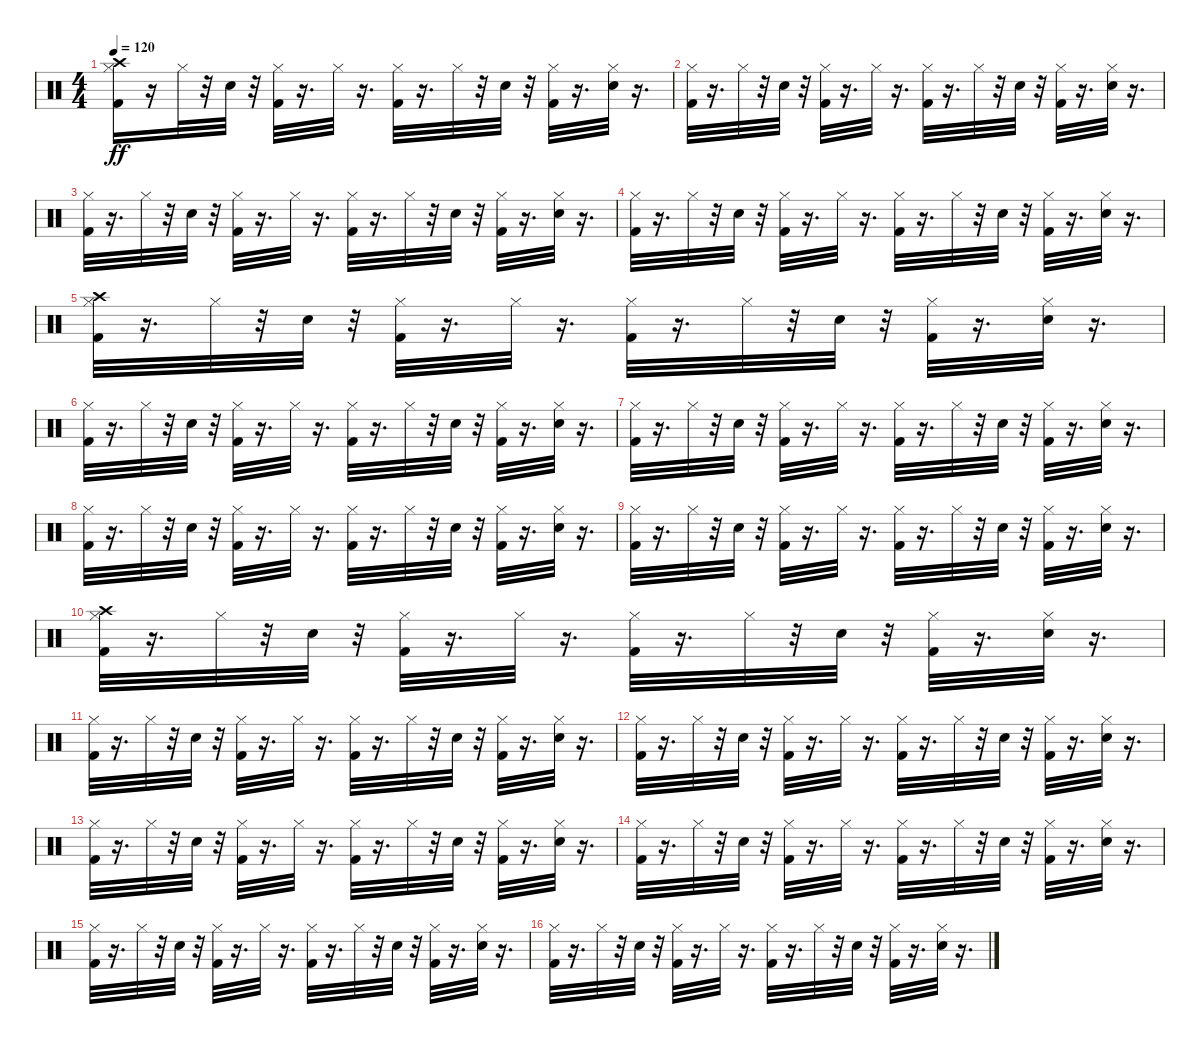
\track "" {instrument percussion}
\staff {score}
\articulation defaults
\ts (4 4)
\tempo 120
\clef neutral
\ks c
("Kick (hit) 2" "Hi-Hat (closed)" "Crash high (hit)").16{dy ff} r.16 "Hi-Hat (closed)".32 r.32 "Snare (hit) 2".32 r.32 ("Kick (hit) 2" "Hi-Hat (closed)").32 r.16{d} "Hi-Hat (closed)".32 r.16{d} ("Kick (hit) 2" "Hi-Hat (closed)").32 r.16{d} "Hi-Hat (closed)".32 r.32 "Snare (hit) 2".32 r.32 ("Kick (hit) 2" "Hi-Hat (closed)").32 r.16{d} ("Snare (hit) 2" "Hi-Hat (closed)").32 r.16{d} |
("Kick (hit) 2" "Hi-Hat (closed)").32 r.16{d} "Hi-Hat (closed)".32 r.32 "Snare (hit) 2".32 r.32 ("Kick (hit) 2" "Hi-Hat (closed)").32 r.16{d} "Hi-Hat (closed)".32 r.16{d} ("Kick (hit) 2" "Hi-Hat (closed)").32 r.16{d} "Hi-Hat (closed)".32 r.32 "Snare (hit) 2".32 r.32 ("Kick (hit) 2" "Hi-Hat (closed)").32 r.16{d} ("Snare (hit) 2" "Hi-Hat (closed)").32 r.16{d} |
("Kick (hit) 2" "Hi-Hat (closed)").32 r.16{d} "Hi-Hat (closed)".32 r.32 "Snare (hit) 2".32 r.32 ("Kick (hit) 2" "Hi-Hat (closed)").32 r.16{d} "Hi-Hat (closed)".32 r.16{d} ("Kick (hit) 2" "Hi-Hat (closed)").32 r.16{d} "Hi-Hat (closed)".32 r.32 "Snare (hit) 2".32 r.32 ("Kick (hit) 2" "Hi-Hat (closed)").32 r.16{d} ("Snare (hit) 2" "Hi-Hat (closed)").32 r.16{d} |
("Kick (hit) 2" "Hi-Hat (closed)").32 r.16{d} "Hi-Hat (closed)".32 r.32 "Snare (hit) 2".32 r.32 ("Kick (hit) 2" "Hi-Hat (closed)").32 r.16{d} "Hi-Hat (closed)".32 r.16{d} ("Kick (hit) 2" "Hi-Hat (closed)").32 r.16{d} "Hi-Hat (closed)".32 r.32 "Snare (hit) 2".32 r.32 ("Kick (hit) 2" "Hi-Hat (closed)").32 r.16{d} ("Snare (hit) 2" "Hi-Hat (closed)").32 r.16{d} |
("Kick (hit) 2" "Hi-Hat (closed)" "Crash high (hit)").32 r.16{d} "Hi-Hat (closed)".32 r.32 "Snare (hit) 2".32 r.32 ("Kick (hit) 2" "Hi-Hat (closed)").32 r.16{d} "Hi-Hat (closed)".32 r.16{d} ("Kick (hit) 2" "Hi-Hat (closed)").32 r.16{d} "Hi-Hat (closed)".32 r.32 "Snare (hit) 2".32 r.32 ("Kick (hit) 2" "Hi-Hat (closed)").32 r.16{d} ("Snare (hit) 2" "Hi-Hat (closed)").32 r.16{d} |
("Kick (hit) 2" "Hi-Hat (closed)").32 r.16{d} "Hi-Hat (closed)".32 r.32 "Snare (hit) 2".32 r.32 ("Kick (hit) 2" "Hi-Hat (closed)").32 r.16{d} "Hi-Hat (closed)".32 r.16{d} ("Kick (hit) 2" "Hi-Hat (closed)").32 r.16{d} "Hi-Hat (closed)".32 r.32 "Snare (hit) 2".32 r.32 ("Kick (hit) 2" "Hi-Hat (closed)").32 r.16{d} ("Snare (hit) 2" "Hi-Hat (closed)").32 r.16{d} |
("Kick (hit) 2" "Hi-Hat (closed)").32 r.16{d} "Hi-Hat (closed)".32 r.32 "Snare (hit) 2".32 r.32 ("Kick (hit) 2" "Hi-Hat (closed)").32 r.16{d} "Hi-Hat (closed)".32 r.16{d} ("Kick (hit) 2" "Hi-Hat (closed)").32 r.16{d} "Hi-Hat (closed)".32 r.32 "Snare (hit) 2".32 r.32 ("Kick (hit) 2" "Hi-Hat (closed)").32 r.16{d} ("Snare (hit) 2" "Hi-Hat (closed)").32 r.16{d} |
("Kick (hit) 2" "Hi-Hat (closed)").32 r.16{d} "Hi-Hat (closed)".32 r.32 "Snare (hit) 2".32 r.32 ("Kick (hit) 2" "Hi-Hat (closed)").32 r.16{d} "Hi-Hat (closed)".32 r.16{d} ("Kick (hit) 2" "Hi-Hat (closed)").32 r.16{d} "Hi-Hat (closed)".32 r.32 "Snare (hit) 2".32 r.32 ("Kick (hit) 2" "Hi-Hat (closed)").32 r.16{d} ("Snare (hit) 2" "Hi-Hat (closed)").32 r.16{d} |
("Kick (hit) 2" "Hi-Hat (closed)").32 r.16{d} "Hi-Hat (closed)".32 r.32 "Snare (hit) 2".32 r.32 ("Kick (hit) 2" "Hi-Hat (closed)").32 r.16{d} "Hi-Hat (closed)".32 r.16{d} ("Kick (hit) 2" "Hi-Hat (closed)").32 r.16{d} "Hi-Hat (closed)".32 r.32 "Snare (hit) 2".32 r.32 ("Kick (hit) 2" "Hi-Hat (closed)").32 r.16{d} ("Snare (hit) 2" "Hi-Hat (closed)").32 r.16{d} |
("Kick (hit) 2" "Hi-Hat (closed)" "Crash high (hit)").32 r.16{d} "Hi-Hat (closed)".32 r.32 "Snare (hit) 2".32 r.32 ("Kick (hit) 2" "Hi-Hat (closed)").32 r.16{d} "Hi-Hat (closed)".32 r.16{d} ("Kick (hit) 2" "Hi-Hat (closed)").32 r.16{d} "Hi-Hat (closed)".32 r.32 "Snare (hit) 2".32 r.32 ("Kick (hit) 2" "Hi-Hat (closed)").32 r.16{d} ("Snare (hit) 2" "Hi-Hat (closed)").32 r.16{d} |
("Kick (hit) 2" "Hi-Hat (closed)").32 r.16{d} "Hi-Hat (closed)".32 r.32 "Snare (hit) 2".32 r.32 ("Kick (hit) 2" "Hi-Hat (closed)").32 r.16{d} "Hi-Hat (closed)".32 r.16{d} ("Kick (hit) 2" "Hi-Hat (closed)").32 r.16{d} "Hi-Hat (closed)".32 r.32 "Snare (hit) 2".32 r.32 ("Kick (hit) 2" "Hi-Hat (closed)").32 r.16{d} ("Snare (hit) 2" "Hi-Hat (closed)").32 r.16{d} |
("Kick (hit) 2" "Hi-Hat (closed)").32 r.16{d} "Hi-Hat (closed)".32 r.32 "Snare (hit) 2".32 r.32 ("Kick (hit) 2" "Hi-Hat (closed)").32 r.16{d} "Hi-Hat (closed)".32 r.16{d} ("Kick (hit) 2" "Hi-Hat (closed)").32 r.16{d} "Hi-Hat (closed)".32 r.32 "Snare (hit) 2".32 r.32 ("Kick (hit) 2" "Hi-Hat (closed)").32 r.16{d} ("Snare (hit) 2" "Hi-Hat (closed)").32 r.16{d} |
("Kick (hit) 2" "Hi-Hat (closed)").32 r.16{d} "Hi-Hat (closed)".32 r.32 "Snare (hit) 2".32 r.32 ("Kick (hit) 2" "Hi-Hat (closed)").32 r.16{d} "Hi-Hat (closed)".32 r.16{d} ("Kick (hit) 2" "Hi-Hat (closed)").32 r.16{d} "Hi-Hat (closed)".32 r.32 "Snare (hit) 2".32 r.32 ("Kick (hit) 2" "Hi-Hat (closed)").32 r.16{d} ("Snare (hit) 2" "Hi-Hat (closed)").32 r.16{d} |
("Kick (hit) 2" "Hi-Hat (closed)").32 r.16{d} "Hi-Hat (closed)".32 r.32 "Snare (hit) 2".32 r.32 ("Kick (hit) 2" "Hi-Hat (closed)").32 r.16{d} "Hi-Hat (closed)".32 r.16{d} ("Kick (hit) 2" "Hi-Hat (closed)").32 r.16{d} "Hi-Hat (closed)".32 r.32 "Snare (hit) 2".32 r.32 ("Kick (hit) 2" "Hi-Hat (closed)").32 r.16{d} ("Snare (hit) 2" "Hi-Hat (closed)").32 r.16{d} |
("Kick (hit) 2" "Hi-Hat (closed)").32 r.16{d} "Hi-Hat (closed)".32 r.32 "Snare (hit) 2".32 r.32 ("Kick (hit) 2" "Hi-Hat (closed)").32 r.16{d} "Hi-Hat (closed)".32 r.16{d} ("Kick (hit) 2" "Hi-Hat (closed)").32 r.16{d} "Hi-Hat (closed)".32 r.32 "Snare (hit) 2".32 r.32 ("Kick (hit) 2" "Hi-Hat (closed)").32 r.16{d} ("Snare (hit) 2" "Hi-Hat (closed)").32 r.16{d} |
("Kick (hit) 2" "Hi-Hat (closed)").32 r.16{d} "Hi-Hat (closed)".32 r.32 "Snare (hit) 2".32 r.32 ("Kick (hit) 2" "Hi-Hat (closed)").32 r.16{d} "Hi-Hat (closed)".32 r.16{d} ("Kick (hit) 2" "Hi-Hat (closed)").32 r.16{d} "Hi-Hat (closed)".32 r.32 "Snare (hit) 2".32 r.32 ("Kick (hit) 2" "Hi-Hat (closed)").32 r.16{d} ("Snare (hit) 2" "Hi-Hat (closed)").32 r.16{d}
